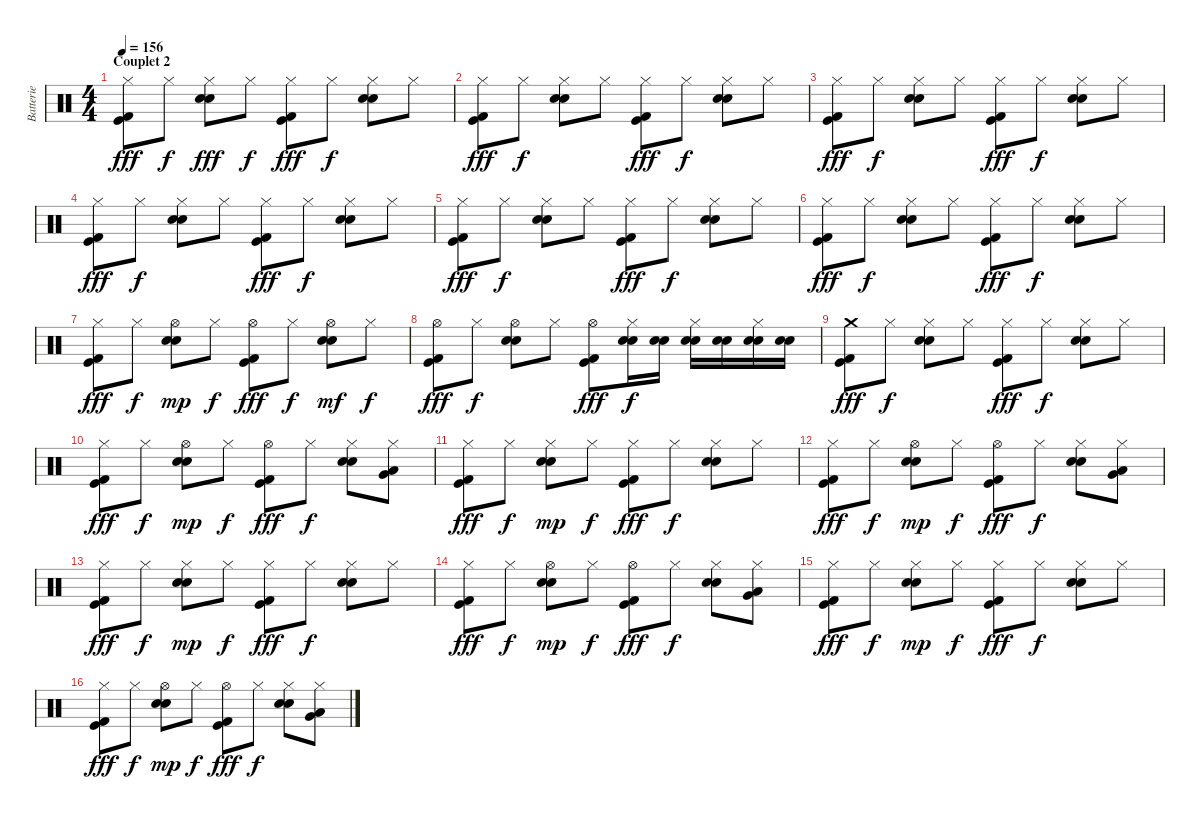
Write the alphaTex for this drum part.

\track ("Batterie" "Batterie") {instrument percussion}
\staff {score}
\articulation defaults
\ts (4 4)
\section ("" "Couplet 2")
\tempo 156
\clef neutral
\ks c
("Hi-Hat (closed)" "Kick (hit)" "Kick (hit) 2").8{dy fff} "Hi-Hat (closed)".8{dy f} ("Hi-Hat (closed)" "Snare (hit) 2" "Electric Snare (hit)").8{dy fff} "Hi-Hat (closed)".8{dy f} ("Hi-Hat (closed)" "Kick (hit)" "Kick (hit) 2").8{dy fff} "Hi-Hat (closed)".8{dy f} ("Hi-Hat (closed)" "Snare (hit) 2" "Electric Snare (hit)").8 "Hi-Hat (closed)".8 |
("Hi-Hat (closed)" "Kick (hit)" "Kick (hit) 2").8{dy fff} "Hi-Hat (closed)".8{dy f} ("Hi-Hat (closed)" "Snare (hit) 2" "Electric Snare (hit)").8 "Hi-Hat (closed)".8 ("Hi-Hat (closed)" "Kick (hit)" "Kick (hit) 2").8{dy fff} "Hi-Hat (closed)".8{dy f} ("Hi-Hat (closed)" "Snare (hit) 2" "Electric Snare (hit)").8 "Hi-Hat (closed)".8 |
("Hi-Hat (closed)" "Kick (hit)" "Kick (hit) 2").8{dy fff} "Hi-Hat (closed)".8{dy f} ("Hi-Hat (closed)" "Snare (hit) 2" "Electric Snare (hit)").8 "Hi-Hat (closed)".8 ("Hi-Hat (closed)" "Kick (hit)" "Kick (hit) 2").8{dy fff} "Hi-Hat (closed)".8{dy f} ("Hi-Hat (closed)" "Snare (hit) 2" "Electric Snare (hit)").8 "Hi-Hat (closed)".8 |
("Hi-Hat (closed)" "Kick (hit)" "Kick (hit) 2").8{dy fff} "Hi-Hat (closed)".8{dy f} ("Hi-Hat (closed)" "Snare (hit) 2" "Electric Snare (hit)").8 "Hi-Hat (closed)".8 ("Hi-Hat (closed)" "Kick (hit)" "Kick (hit) 2").8{dy fff} "Hi-Hat (closed)".8{dy f} ("Hi-Hat (closed)" "Snare (hit) 2" "Electric Snare (hit)").8 "Hi-Hat (closed)".8 |
("Hi-Hat (closed)" "Kick (hit)" "Kick (hit) 2").8{dy fff} "Hi-Hat (closed)".8{dy f} ("Hi-Hat (closed)" "Snare (hit) 2" "Electric Snare (hit)").8 "Hi-Hat (closed)".8 ("Hi-Hat (closed)" "Kick (hit)" "Kick (hit) 2").8{dy fff} "Hi-Hat (closed)".8{dy f} ("Hi-Hat (closed)" "Snare (hit) 2" "Electric Snare (hit)").8 "Hi-Hat (closed)".8 |
("Hi-Hat (closed)" "Kick (hit)" "Kick (hit) 2").8{dy fff} "Hi-Hat (closed)".8{dy f} ("Hi-Hat (closed)" "Snare (hit) 2" "Electric Snare (hit)").8 "Hi-Hat (closed)".8 ("Hi-Hat (closed)" "Kick (hit)" "Kick (hit) 2").8{dy fff} "Hi-Hat (closed)".8{dy f} ("Hi-Hat (closed)" "Snare (hit) 2" "Electric Snare (hit)").8 "Hi-Hat (closed)".8 |
("Hi-Hat (closed)" "Kick (hit)" "Kick (hit) 2").8{dy fff} "Hi-Hat (closed)".8{dy f} ("Hi-Hat (open)" "Snare (hit) 2" "Electric Snare (hit)").8{dy mp} "Hi-Hat (closed)".8{dy f} ("Hi-Hat (open)" "Kick (hit)" "Kick (hit) 2").8{dy fff} "Hi-Hat (closed)".8{dy f} ("Hi-Hat (open)" "Snare (hit) 2" "Electric Snare (hit)").8{dy mf} "Hi-Hat (closed)".8{dy f} |
("Hi-Hat (open)" "Kick (hit)" "Kick (hit) 2").8{dy fff} "Hi-Hat (closed)".8{dy f} ("Hi-Hat (open)" "Snare (hit) 2" "Electric Snare (hit)").8 "Hi-Hat (closed)".8 ("Hi-Hat (open)" "Kick (hit)" "Kick (hit) 2").8{dy fff} ("Hi-Hat (closed)" "Snare (hit) 2" "Electric Snare (hit)").16{dy f} ("Snare (hit) 2" "Electric Snare (hit)").16 ("Hi-Hat (closed)" "Snare (hit) 2" "Electric Snare (hit)").16 ("Snare (hit) 2" "Electric Snare (hit)").16 ("Hi-Hat (closed)" "Snare (hit) 2" "Electric Snare (hit)").16 ("Snare (hit) 2" "Electric Snare (hit)").16 |
("Crash medium (hit)" "Kick (hit)" "Kick (hit) 2").8{dy fff} "Hi-Hat (closed)".8{dy f} ("Hi-Hat (closed)" "Snare (hit) 2" "Electric Snare (hit)").8 "Hi-Hat (closed)".8 ("Hi-Hat (closed)" "Kick (hit)" "Kick (hit) 2").8{dy fff} "Hi-Hat (closed)".8{dy f} ("Hi-Hat (closed)" "Snare (hit) 2" "Electric Snare (hit)").8 "Hi-Hat (closed)".8 |
("Hi-Hat (closed)" "Kick (hit)" "Kick (hit) 2").8{dy fff} "Hi-Hat (closed)".8{dy f} ("Hi-Hat (open)" "Snare (hit) 2" "Electric Snare (hit)").8{dy mp} "Hi-Hat (closed)".8{dy f} ("Hi-Hat (open)" "Kick (hit)" "Kick (hit) 2").8{dy fff} "Hi-Hat (closed)".8{dy f} ("Hi-Hat (closed)" "Snare (hit) 2" "Electric Snare (hit)").8 ("Hi-Hat (closed)" "Very Low Tom (hit)" "Low Floor Tom (hit)").8 |
("Hi-Hat (closed)" "Kick (hit)" "Kick (hit) 2").8{dy fff} "Hi-Hat (closed)".8{dy f} ("Hi-Hat (closed)" "Snare (hit) 2" "Electric Snare (hit)").8{dy mp} "Hi-Hat (closed)".8{dy f} ("Hi-Hat (closed)" "Kick (hit)" "Kick (hit) 2").8{dy fff} "Hi-Hat (closed)".8{dy f} ("Hi-Hat (closed)" "Snare (hit) 2" "Electric Snare (hit)").8 "Hi-Hat (closed)".8 |
("Hi-Hat (closed)" "Kick (hit)" "Kick (hit) 2").8{dy fff} "Hi-Hat (closed)".8{dy f} ("Hi-Hat (open)" "Snare (hit) 2" "Electric Snare (hit)").8{dy mp} "Hi-Hat (closed)".8{dy f} ("Hi-Hat (open)" "Kick (hit)" "Kick (hit) 2").8{dy fff} "Hi-Hat (closed)".8{dy f} ("Hi-Hat (closed)" "Snare (hit) 2" "Electric Snare (hit)").8 ("Hi-Hat (closed)" "Very Low Tom (hit)" "Low Floor Tom (hit)").8 |
("Hi-Hat (closed)" "Kick (hit)" "Kick (hit) 2").8{dy fff} "Hi-Hat (closed)".8{dy f} ("Hi-Hat (closed)" "Snare (hit) 2" "Electric Snare (hit)").8{dy mp} "Hi-Hat (closed)".8{dy f} ("Hi-Hat (closed)" "Kick (hit)" "Kick (hit) 2").8{dy fff} "Hi-Hat (closed)".8{dy f} ("Hi-Hat (closed)" "Snare (hit) 2" "Electric Snare (hit)").8 "Hi-Hat (closed)".8 |
("Hi-Hat (closed)" "Kick (hit)" "Kick (hit) 2").8{dy fff} "Hi-Hat (closed)".8{dy f} ("Hi-Hat (open)" "Snare (hit) 2" "Electric Snare (hit)").8{dy mp} "Hi-Hat (closed)".8{dy f} ("Hi-Hat (open)" "Kick (hit)" "Kick (hit) 2").8{dy fff} "Hi-Hat (closed)".8{dy f} ("Hi-Hat (closed)" "Snare (hit) 2" "Electric Snare (hit)").8 ("Hi-Hat (closed)" "Very Low Tom (hit)" "Low Floor Tom (hit)").8 |
("Hi-Hat (closed)" "Kick (hit)" "Kick (hit) 2").8{dy fff} "Hi-Hat (closed)".8{dy f} ("Hi-Hat (closed)" "Snare (hit) 2" "Electric Snare (hit)").8{dy mp} "Hi-Hat (closed)".8{dy f} ("Hi-Hat (closed)" "Kick (hit)" "Kick (hit) 2").8{dy fff} "Hi-Hat (closed)".8{dy f} ("Hi-Hat (closed)" "Snare (hit) 2" "Electric Snare (hit)").8 "Hi-Hat (closed)".8 |
("Hi-Hat (closed)" "Kick (hit)" "Kick (hit) 2").8{dy fff} "Hi-Hat (closed)".8{dy f} ("Hi-Hat (open)" "Snare (hit) 2" "Electric Snare (hit)").8{dy mp} "Hi-Hat (closed)".8{dy f} ("Hi-Hat (open)" "Kick (hit)" "Kick (hit) 2").8{dy fff} "Hi-Hat (closed)".8{dy f} ("Hi-Hat (closed)" "Snare (hit) 2" "Electric Snare (hit)").8 ("Hi-Hat (closed)" "Very Low Tom (hit)" "Low Floor Tom (hit)").8
